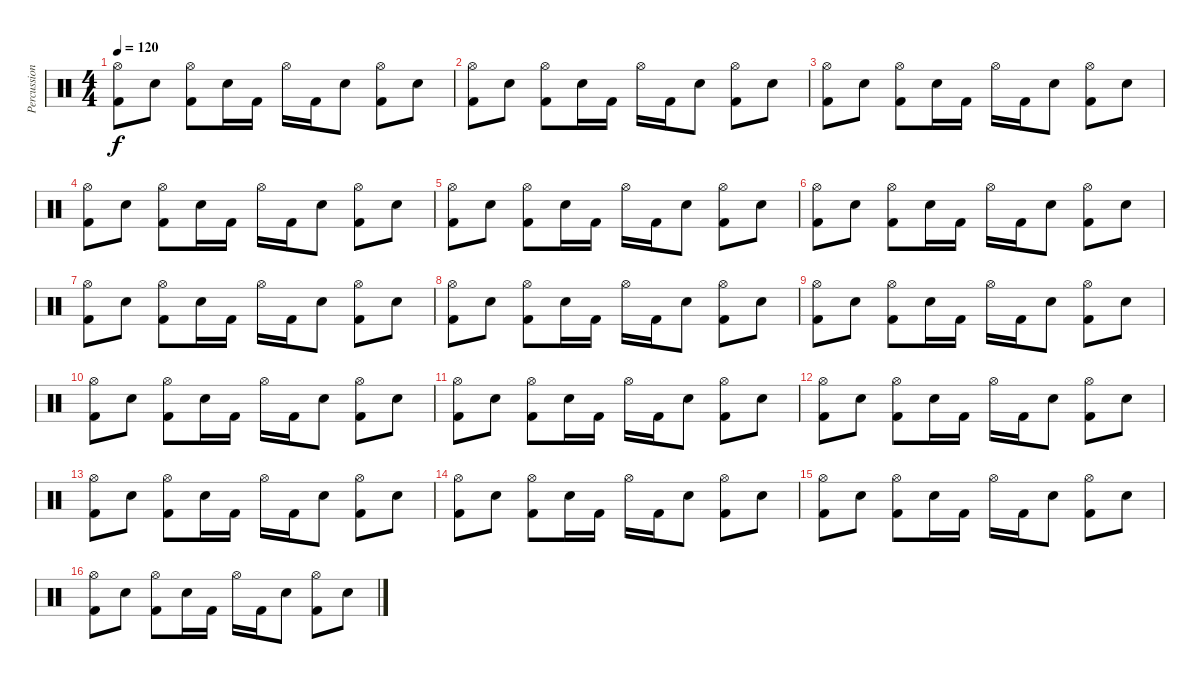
\track ("Percussion" "Percussion") {instrument percussion}
\staff {score}
\articulation defaults
\ts (4 4)
\tempo 120
\clef neutral
\ks c
("Hi-Hat (open)" "Kick (hit) 2").8{dy f} "Electric Snare (hit)".8 ("Hi-Hat (open)" "Kick (hit) 2").8 "Electric Snare (hit)".16 "Kick (hit) 2".16 "Hi-Hat (open)".16 "Kick (hit) 2".16 "Electric Snare (hit)".8 ("Hi-Hat (open)" "Kick (hit) 2").8 "Electric Snare (hit)".8 |
("Hi-Hat (open)" "Kick (hit) 2").8 "Electric Snare (hit)".8 ("Hi-Hat (open)" "Kick (hit) 2").8 "Electric Snare (hit)".16 "Kick (hit) 2".16 "Hi-Hat (open)".16 "Kick (hit) 2".16 "Electric Snare (hit)".8 ("Hi-Hat (open)" "Kick (hit) 2").8 "Electric Snare (hit)".8 |
("Hi-Hat (open)" "Kick (hit) 2").8 "Electric Snare (hit)".8 ("Hi-Hat (open)" "Kick (hit) 2").8 "Electric Snare (hit)".16 "Kick (hit) 2".16 "Hi-Hat (open)".16 "Kick (hit) 2".16 "Electric Snare (hit)".8 ("Hi-Hat (open)" "Kick (hit) 2").8 "Electric Snare (hit)".8 |
("Hi-Hat (open)" "Kick (hit) 2").8 "Electric Snare (hit)".8 ("Hi-Hat (open)" "Kick (hit) 2").8 "Electric Snare (hit)".16 "Kick (hit) 2".16 "Hi-Hat (open)".16 "Kick (hit) 2".16 "Electric Snare (hit)".8 ("Hi-Hat (open)" "Kick (hit) 2").8 "Electric Snare (hit)".8 |
("Hi-Hat (open)" "Kick (hit) 2").8 "Electric Snare (hit)".8 ("Hi-Hat (open)" "Kick (hit) 2").8 "Electric Snare (hit)".16 "Kick (hit) 2".16 "Hi-Hat (open)".16 "Kick (hit) 2".16 "Electric Snare (hit)".8 ("Hi-Hat (open)" "Kick (hit) 2").8 "Electric Snare (hit)".8 |
("Hi-Hat (open)" "Kick (hit) 2").8 "Electric Snare (hit)".8 ("Hi-Hat (open)" "Kick (hit) 2").8 "Electric Snare (hit)".16 "Kick (hit) 2".16 "Hi-Hat (open)".16 "Kick (hit) 2".16 "Electric Snare (hit)".8 ("Hi-Hat (open)" "Kick (hit) 2").8 "Electric Snare (hit)".8 |
("Hi-Hat (open)" "Kick (hit) 2").8 "Electric Snare (hit)".8 ("Hi-Hat (open)" "Kick (hit) 2").8 "Electric Snare (hit)".16 "Kick (hit) 2".16 "Hi-Hat (open)".16 "Kick (hit) 2".16 "Electric Snare (hit)".8 ("Hi-Hat (open)" "Kick (hit) 2").8 "Electric Snare (hit)".8 |
("Hi-Hat (open)" "Kick (hit) 2").8 "Electric Snare (hit)".8 ("Hi-Hat (open)" "Kick (hit) 2").8 "Electric Snare (hit)".16 "Kick (hit) 2".16 "Hi-Hat (open)".16 "Kick (hit) 2".16 "Electric Snare (hit)".8 ("Hi-Hat (open)" "Kick (hit) 2").8 "Electric Snare (hit)".8 |
("Hi-Hat (open)" "Kick (hit) 2").8 "Electric Snare (hit)".8 ("Hi-Hat (open)" "Kick (hit) 2").8 "Electric Snare (hit)".16 "Kick (hit) 2".16 "Hi-Hat (open)".16 "Kick (hit) 2".16 "Electric Snare (hit)".8 ("Hi-Hat (open)" "Kick (hit) 2").8 "Electric Snare (hit)".8 |
("Hi-Hat (open)" "Kick (hit) 2").8 "Electric Snare (hit)".8 ("Hi-Hat (open)" "Kick (hit) 2").8 "Electric Snare (hit)".16 "Kick (hit) 2".16 "Hi-Hat (open)".16 "Kick (hit) 2".16 "Electric Snare (hit)".8 ("Hi-Hat (open)" "Kick (hit) 2").8 "Electric Snare (hit)".8 |
("Hi-Hat (open)" "Kick (hit) 2").8 "Electric Snare (hit)".8 ("Hi-Hat (open)" "Kick (hit) 2").8 "Electric Snare (hit)".16 "Kick (hit) 2".16 "Hi-Hat (open)".16 "Kick (hit) 2".16 "Electric Snare (hit)".8 ("Hi-Hat (open)" "Kick (hit) 2").8 "Electric Snare (hit)".8 |
("Hi-Hat (open)" "Kick (hit) 2").8 "Electric Snare (hit)".8 ("Hi-Hat (open)" "Kick (hit) 2").8 "Electric Snare (hit)".16 "Kick (hit) 2".16 "Hi-Hat (open)".16 "Kick (hit) 2".16 "Electric Snare (hit)".8 ("Hi-Hat (open)" "Kick (hit) 2").8 "Electric Snare (hit)".8 |
("Hi-Hat (open)" "Kick (hit) 2").8 "Electric Snare (hit)".8 ("Hi-Hat (open)" "Kick (hit) 2").8 "Electric Snare (hit)".16 "Kick (hit) 2".16 "Hi-Hat (open)".16 "Kick (hit) 2".16 "Electric Snare (hit)".8 ("Hi-Hat (open)" "Kick (hit) 2").8 "Electric Snare (hit)".8 |
("Hi-Hat (open)" "Kick (hit) 2").8 "Electric Snare (hit)".8 ("Hi-Hat (open)" "Kick (hit) 2").8 "Electric Snare (hit)".16 "Kick (hit) 2".16 "Hi-Hat (open)".16 "Kick (hit) 2".16 "Electric Snare (hit)".8 ("Hi-Hat (open)" "Kick (hit) 2").8 "Electric Snare (hit)".8 |
("Hi-Hat (open)" "Kick (hit) 2").8 "Electric Snare (hit)".8 ("Hi-Hat (open)" "Kick (hit) 2").8 "Electric Snare (hit)".16 "Kick (hit) 2".16 "Hi-Hat (open)".16 "Kick (hit) 2".16 "Electric Snare (hit)".8 ("Hi-Hat (open)" "Kick (hit) 2").8 "Electric Snare (hit)".8 |
("Hi-Hat (open)" "Kick (hit) 2").8 "Electric Snare (hit)".8 ("Hi-Hat (open)" "Kick (hit) 2").8 "Electric Snare (hit)".16 "Kick (hit) 2".16 "Hi-Hat (open)".16 "Kick (hit) 2".16 "Electric Snare (hit)".8 ("Hi-Hat (open)" "Kick (hit) 2").8 "Electric Snare (hit)".8
